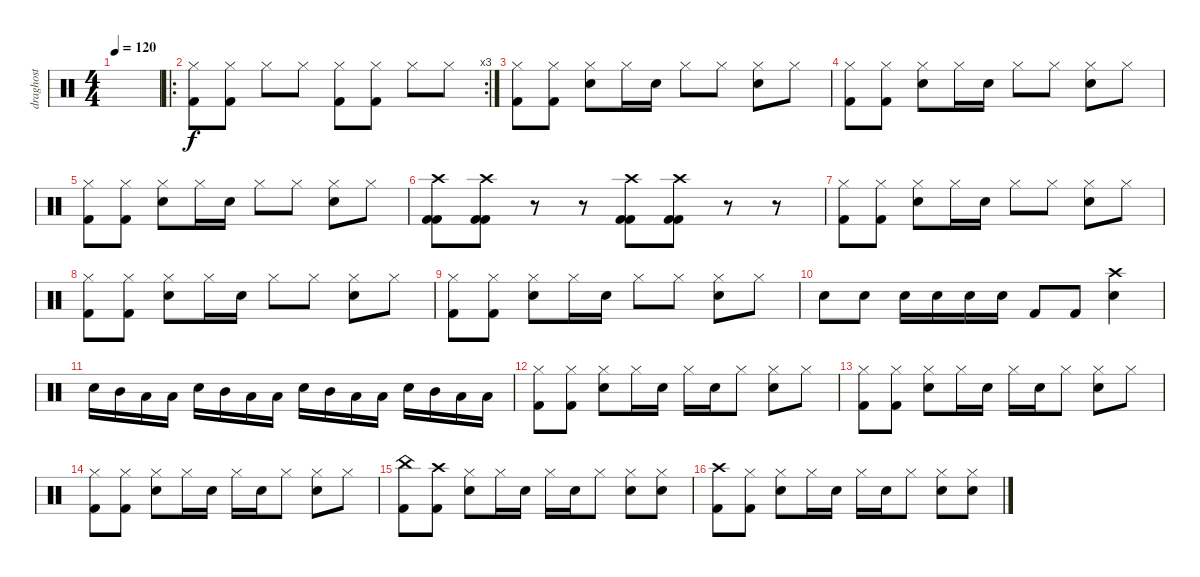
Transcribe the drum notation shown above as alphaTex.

\track ("draghost" "draghost") {instrument percussion}
\staff {score}
\articulation defaults
\ts (4 4)
\tempo 120
\clef neutral
\ks c
|
\ro
\rc 3
("Hi-Hat (closed)" "Kick (hit) 2").8 ("Hi-Hat (closed)" "Kick (hit) 2").8 "Hi-Hat (closed)".8 "Hi-Hat (closed)".8 ("Hi-Hat (closed)" "Kick (hit) 2").8 ("Hi-Hat (closed)" "Kick (hit) 2").8 "Hi-Hat (closed)".8 "Hi-Hat (closed)".8 |
("Hi-Hat (closed)" "Kick (hit) 2").8 ("Hi-Hat (closed)" "Kick (hit) 2").8 ("Hi-Hat (closed)" "Snare (hit) 2").8 "Hi-Hat (closed)".16 "Snare (hit) 2".16 "Hi-Hat (closed)".8 "Hi-Hat (closed)".8 ("Hi-Hat (closed)" "Snare (hit) 2").8 "Hi-Hat (closed)".8 |
("Hi-Hat (closed)" "Kick (hit) 2").8 ("Hi-Hat (closed)" "Kick (hit) 2").8 ("Hi-Hat (closed)" "Snare (hit) 2").8 "Hi-Hat (closed)".16 "Snare (hit) 2".16 "Hi-Hat (closed)".8 "Hi-Hat (closed)".8 ("Hi-Hat (closed)" "Snare (hit) 2").8 "Hi-Hat (closed)".8 |
("Hi-Hat (closed)" "Kick (hit) 2").8 ("Hi-Hat (closed)" "Kick (hit) 2").8 ("Hi-Hat (closed)" "Snare (hit) 2").8 "Hi-Hat (closed)".16 "Snare (hit) 2".16 "Hi-Hat (closed)".8 "Hi-Hat (closed)".8 ("Hi-Hat (closed)" "Snare (hit) 2").8 "Hi-Hat (closed)".8 |
("Crash high (hit)" "Kick (hit) 2" "Kick (hit) 2").8 ("Crash high (hit)" "Kick (hit) 2" "Kick (hit) 2").8 r.8 r.8 ("Crash high (hit)" "Kick (hit) 2" "Kick (hit) 2").8 ("Crash high (hit)" "Kick (hit) 2" "Kick (hit) 2").8 r.8 r.8 |
("Hi-Hat (closed)" "Kick (hit) 2").8 ("Hi-Hat (closed)" "Kick (hit) 2").8 ("Hi-Hat (closed)" "Snare (hit) 2").8 "Hi-Hat (closed)".16 "Snare (hit) 2".16 "Hi-Hat (closed)".8 "Hi-Hat (closed)".8 ("Hi-Hat (closed)" "Snare (hit) 2").8 "Hi-Hat (closed)".8 |
("Hi-Hat (closed)" "Kick (hit) 2").8 ("Hi-Hat (closed)" "Kick (hit) 2").8 ("Hi-Hat (closed)" "Snare (hit) 2").8 "Hi-Hat (closed)".16 "Snare (hit) 2".16 "Hi-Hat (closed)".8 "Hi-Hat (closed)".8 ("Hi-Hat (closed)" "Snare (hit) 2").8 "Hi-Hat (closed)".8 |
("Hi-Hat (closed)" "Kick (hit) 2").8 ("Hi-Hat (closed)" "Kick (hit) 2").8 ("Hi-Hat (closed)" "Snare (hit) 2").8 "Hi-Hat (closed)".16 "Snare (hit) 2".16 "Hi-Hat (closed)".8 "Hi-Hat (closed)".8 ("Hi-Hat (closed)" "Snare (hit) 2").8 "Hi-Hat (closed)".8 |
"Snare (hit) 2".8 "Snare (hit) 2".8 "Snare (hit) 2".16 "Snare (hit) 2".16 "Snare (hit) 2".16 "Snare (hit) 2".16 "Kick (hit) 2".8 "Kick (hit) 2".8 ("Crash high (hit)" "Snare (hit) 2").4 |
"Snare (hit) 2".16 "Mid Tom (hit)".16 "Low Tom (hit)".16 "Low Floor Tom (hit)".16 "Snare (hit) 2".16 "Mid Tom (hit)".16 "Low Tom (hit)".16 "Low Floor Tom (hit)".16 "Snare (hit) 2".16 "Mid Tom (hit)".16 "Low Tom (hit)".16 "Low Floor Tom (hit)".16 "Snare (hit) 2".16 "Mid Tom (hit)".16 "Low Tom (hit)".16 "Low Floor Tom (hit)".16 |
("Hi-Hat (closed)" "Kick (hit) 2").8 ("Hi-Hat (closed)" "Kick (hit) 2").8 ("Hi-Hat (closed)" "Snare (hit) 2").8 "Hi-Hat (closed)".16 "Snare (hit) 2".16 "Hi-Hat (closed)".16 "Snare (hit) 2".16 "Hi-Hat (closed)".8 ("Hi-Hat (closed)" "Snare (hit) 2").8 "Hi-Hat (closed)".8 |
("Hi-Hat (closed)" "Kick (hit) 2").8 ("Hi-Hat (closed)" "Kick (hit) 2").8 ("Hi-Hat (closed)" "Snare (hit) 2").8 "Hi-Hat (closed)".16 "Snare (hit) 2".16 "Hi-Hat (closed)".16 "Snare (hit) 2".16 "Hi-Hat (closed)".8 ("Hi-Hat (closed)" "Snare (hit) 2").8 "Hi-Hat (closed)".8 |
("Hi-Hat (closed)" "Kick (hit) 2").8 ("Hi-Hat (closed)" "Kick (hit) 2").8 ("Hi-Hat (closed)" "Snare (hit) 2").8 "Hi-Hat (closed)".16 "Snare (hit) 2".16 "Hi-Hat (closed)".16 "Snare (hit) 2".16 "Hi-Hat (closed)".8 ("Hi-Hat (closed)" "Snare (hit) 2").8 "Hi-Hat (closed)".8 |
("China (hit)" "Kick (hit) 2").8 ("Crash high (hit)" "Kick (hit) 2").8 ("Hi-Hat (closed)" "Snare (hit) 2").8 "Hi-Hat (closed)".16 "Snare (hit) 2".16 "Hi-Hat (closed)".16 "Snare (hit) 2".16 "Hi-Hat (closed)".8 ("Hi-Hat (closed)" "Snare (hit) 2").8 ("Hi-Hat (closed)" "Snare (hit) 2").8 |
("Crash high (hit)" "Kick (hit) 2").8 ("Hi-Hat (closed)" "Kick (hit) 2").8 ("Hi-Hat (closed)" "Snare (hit) 2").8 "Hi-Hat (closed)".16 "Snare (hit) 2".16 "Hi-Hat (closed)".16 "Snare (hit) 2".16 "Hi-Hat (closed)".8 ("Hi-Hat (closed)" "Snare (hit) 2").8 ("Hi-Hat (closed)" "Snare (hit) 2").8
